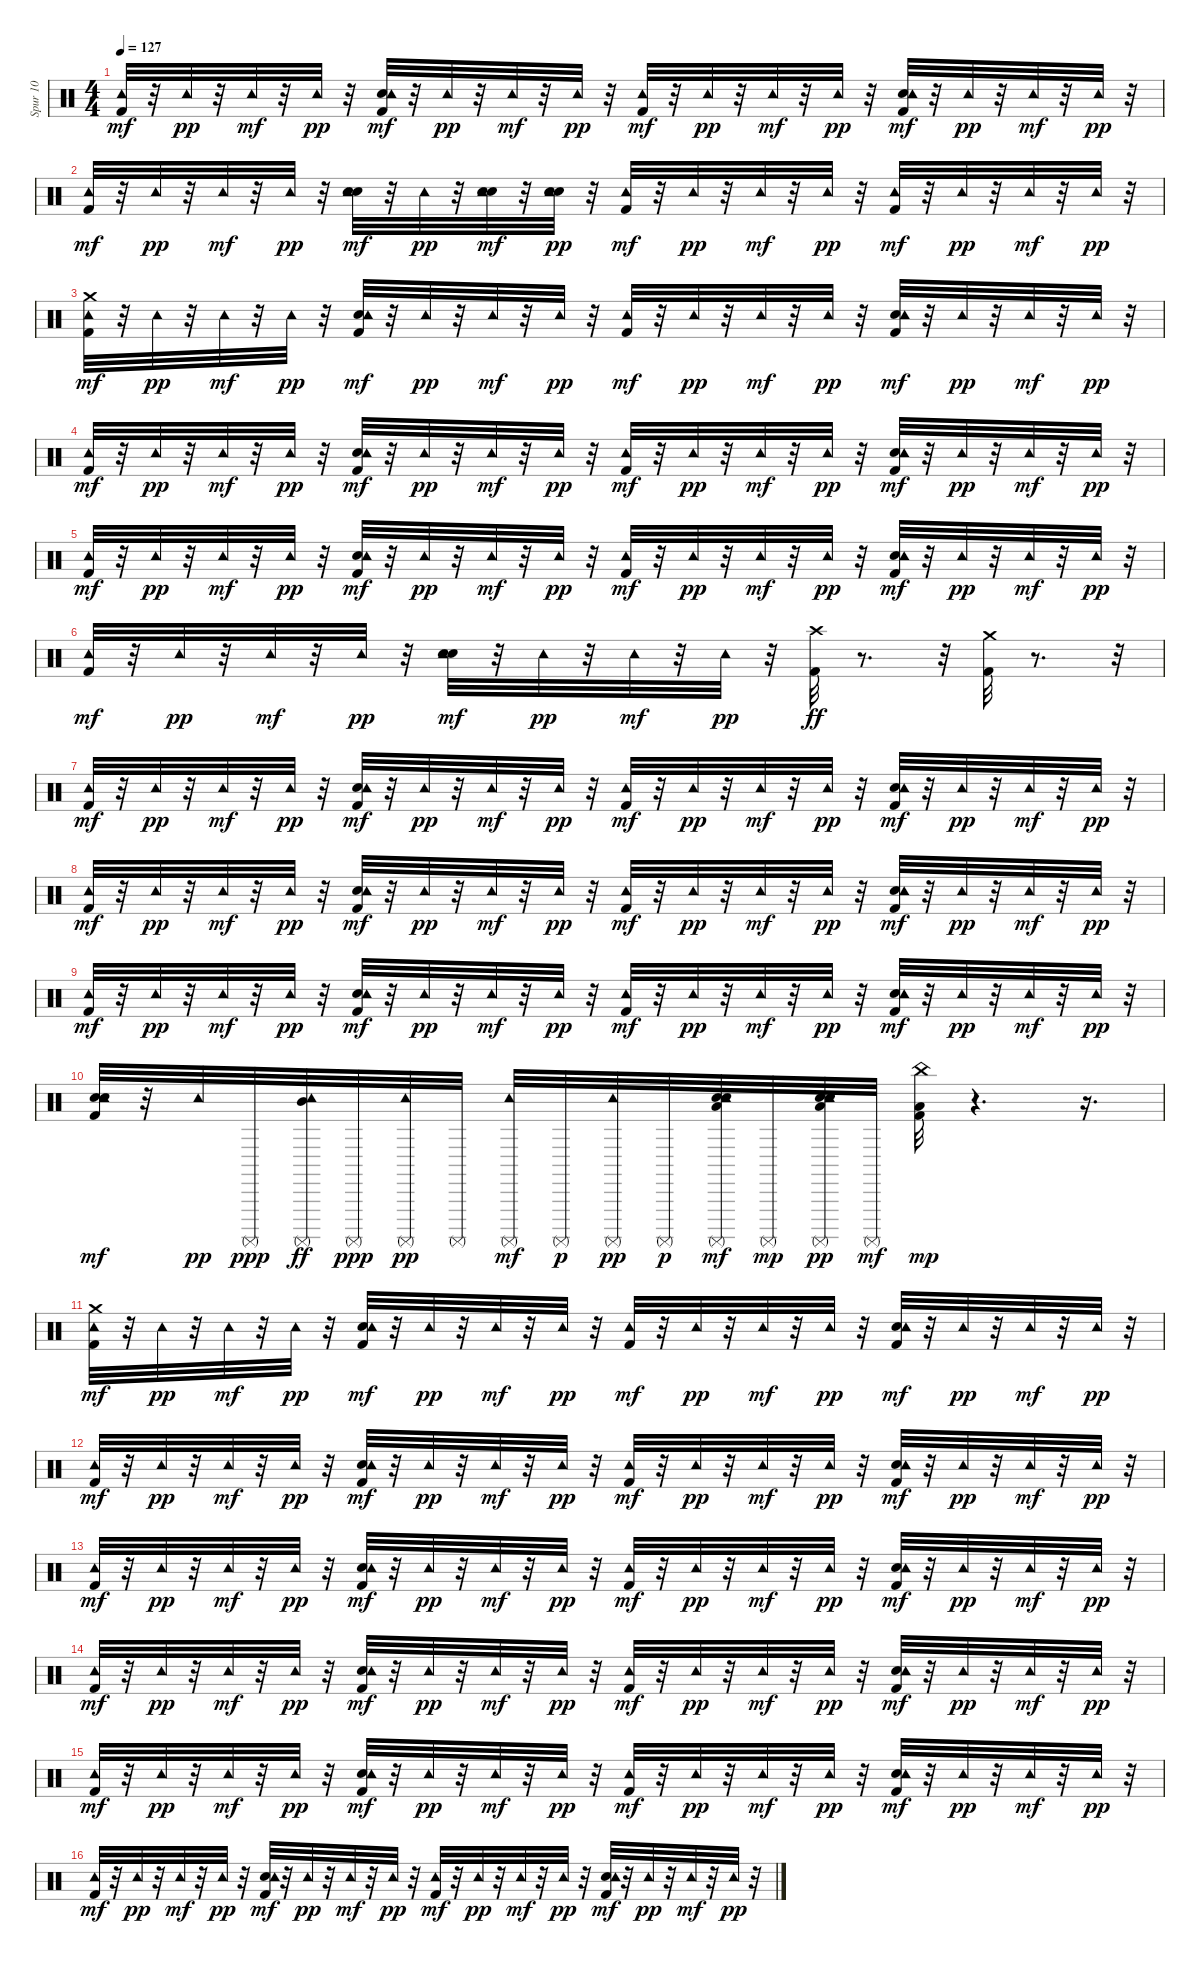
\track ("Spur 10" "Spur 10") {instrument percussion}
\staff {score}
\articulation defaults
\ts (4 4)
\tempo 127
\clef neutral
\ks c
("Kick (hit) 2" "Tambourine (hit)").32{dy mf} r.32 "Tambourine (hit)".32{dy pp} r.32 "Tambourine (hit)".32{dy mf} r.32 "Tambourine (hit)".32{dy pp} r.32 ("Kick (hit) 2" "Snare (hit) 2" "Tambourine (hit)").32{dy mf} r.32 "Tambourine (hit)".32{dy pp} r.32 "Tambourine (hit)".32{dy mf} r.32 "Tambourine (hit)".32{dy pp} r.32 ("Kick (hit) 2" "Tambourine (hit)").32{dy mf} r.32 "Tambourine (hit)".32{dy pp} r.32 "Tambourine (hit)".32{dy mf} r.32 "Tambourine (hit)".32{dy pp} r.32 ("Kick (hit) 2" "Snare (hit) 2" "Tambourine (hit)").32{dy mf} r.32 "Tambourine (hit)".32{dy pp} r.32 "Tambourine (hit)".32{dy mf} r.32 "Tambourine (hit)".32{dy pp} r.32 |
("Kick (hit) 2" "Tambourine (hit)").32{dy mf} r.32 "Tambourine (hit)".32{dy pp} r.32 "Tambourine (hit)".32{dy mf} r.32 "Tambourine (hit)".32{dy pp} r.32 ("Snare (hit) 2" "Electric Snare (hit)" "Tambourine (hit)").32{dy mf} r.32 "Tambourine (hit)".32{dy pp} r.32 ("Snare (hit) 2" "Electric Snare (hit)" "Tambourine (hit)").32{dy mf} r.32 ("Snare (hit) 2" "Electric Snare (hit)" "Tambourine (hit)").32{dy pp} r.32 ("Kick (hit) 2" "Tambourine (hit)").32{dy mf} r.32 "Tambourine (hit)".32{dy pp} r.32 "Tambourine (hit)".32{dy mf} r.32 "Tambourine (hit)".32{dy pp} r.32 ("Kick (hit) 2" "Tambourine (hit)").32{dy mf} r.32 "Tambourine (hit)".32{dy pp} r.32 "Tambourine (hit)".32{dy mf} r.32 "Tambourine (hit)".32{dy pp} r.32 |
("Kick (hit) 2" "Tambourine (hit)" "Crash medium (hit)").32{dy mf} r.32 "Tambourine (hit)".32{dy pp} r.32 "Tambourine (hit)".32{dy mf} r.32 "Tambourine (hit)".32{dy pp} r.32 ("Kick (hit) 2" "Snare (hit) 2" "Tambourine (hit)").32{dy mf} r.32 "Tambourine (hit)".32{dy pp} r.32 "Tambourine (hit)".32{dy mf} r.32 "Tambourine (hit)".32{dy pp} r.32 ("Kick (hit) 2" "Tambourine (hit)").32{dy mf} r.32 "Tambourine (hit)".32{dy pp} r.32 "Tambourine (hit)".32{dy mf} r.32 "Tambourine (hit)".32{dy pp} r.32 ("Kick (hit) 2" "Snare (hit) 2" "Tambourine (hit)").32{dy mf} r.32 "Tambourine (hit)".32{dy pp} r.32 "Tambourine (hit)".32{dy mf} r.32 "Tambourine (hit)".32{dy pp} r.32 |
("Kick (hit) 2" "Tambourine (hit)").32{dy mf} r.32 "Tambourine (hit)".32{dy pp} r.32 "Tambourine (hit)".32{dy mf} r.32 "Tambourine (hit)".32{dy pp} r.32 ("Kick (hit) 2" "Snare (hit) 2" "Tambourine (hit)").32{dy mf} r.32 "Tambourine (hit)".32{dy pp} r.32 "Tambourine (hit)".32{dy mf} r.32 "Tambourine (hit)".32{dy pp} r.32 ("Kick (hit) 2" "Tambourine (hit)").32{dy mf} r.32 "Tambourine (hit)".32{dy pp} r.32 "Tambourine (hit)".32{dy mf} r.32 "Tambourine (hit)".32{dy pp} r.32 ("Kick (hit) 2" "Snare (hit) 2" "Tambourine (hit)").32{dy mf} r.32 "Tambourine (hit)".32{dy pp} r.32 "Tambourine (hit)".32{dy mf} r.32 "Tambourine (hit)".32{dy pp} r.32 |
("Kick (hit) 2" "Tambourine (hit)").32{dy mf} r.32 "Tambourine (hit)".32{dy pp} r.32 "Tambourine (hit)".32{dy mf} r.32 "Tambourine (hit)".32{dy pp} r.32 ("Kick (hit) 2" "Snare (hit) 2" "Tambourine (hit)").32{dy mf} r.32 "Tambourine (hit)".32{dy pp} r.32 "Tambourine (hit)".32{dy mf} r.32 "Tambourine (hit)".32{dy pp} r.32 ("Kick (hit) 2" "Tambourine (hit)").32{dy mf} r.32 "Tambourine (hit)".32{dy pp} r.32 "Tambourine (hit)".32{dy mf} r.32 "Tambourine (hit)".32{dy pp} r.32 ("Kick (hit) 2" "Snare (hit) 2" "Tambourine (hit)").32{dy mf} r.32 "Tambourine (hit)".32{dy pp} r.32 "Tambourine (hit)".32{dy mf} r.32 "Tambourine (hit)".32{dy pp} r.32 |
("Kick (hit) 2" "Tambourine (hit)").32{dy mf} r.32 "Tambourine (hit)".32{dy pp} r.32 "Tambourine (hit)".32{dy mf} r.32 "Tambourine (hit)".32{dy pp} r.32 ("Snare (hit) 2" "Electric Snare (hit)" "Tambourine (hit)").32{dy mf} r.32 "Tambourine (hit)".32{dy pp} r.32 "Tambourine (hit)".32{dy mf} r.32 "Tambourine (hit)".32{dy pp} r.32 ("Kick (hit) 2" "Crash high (hit)").32{dy ff} r.8{d} r.32 ("Kick (hit) 2" "Crash medium (hit)").32 r.8{d} r.32 |
("Kick (hit) 2" "Tambourine (hit)").32{dy mf} r.32 "Tambourine (hit)".32{dy pp} r.32 "Tambourine (hit)".32{dy mf} r.32 "Tambourine (hit)".32{dy pp} r.32 ("Kick (hit) 2" "Snare (hit) 2" "Tambourine (hit)").32{dy mf} r.32 "Tambourine (hit)".32{dy pp} r.32 "Tambourine (hit)".32{dy mf} r.32 "Tambourine (hit)".32{dy pp} r.32 ("Kick (hit) 2" "Tambourine (hit)").32{dy mf} r.32 "Tambourine (hit)".32{dy pp} r.32 "Tambourine (hit)".32{dy mf} r.32 "Tambourine (hit)".32{dy pp} r.32 ("Kick (hit) 2" "Snare (hit) 2" "Tambourine (hit)").32{dy mf} r.32 "Tambourine (hit)".32{dy pp} r.32 "Tambourine (hit)".32{dy mf} r.32 "Tambourine (hit)".32{dy pp} r.32 |
("Kick (hit) 2" "Tambourine (hit)").32{dy mf} r.32 "Tambourine (hit)".32{dy pp} r.32 "Tambourine (hit)".32{dy mf} r.32 "Tambourine (hit)".32{dy pp} r.32 ("Kick (hit) 2" "Snare (hit) 2" "Tambourine (hit)").32{dy mf} r.32 "Tambourine (hit)".32{dy pp} r.32 "Tambourine (hit)".32{dy mf} r.32 "Tambourine (hit)".32{dy pp} r.32 ("Kick (hit) 2" "Tambourine (hit)").32{dy mf} r.32 "Tambourine (hit)".32{dy pp} r.32 "Tambourine (hit)".32{dy mf} r.32 "Tambourine (hit)".32{dy pp} r.32 ("Kick (hit) 2" "Snare (hit) 2" "Tambourine (hit)").32{dy mf} r.32 "Tambourine (hit)".32{dy pp} r.32 "Tambourine (hit)".32{dy mf} r.32 "Tambourine (hit)".32{dy pp} r.32 |
("Kick (hit) 2" "Tambourine (hit)").32{dy mf} r.32 "Tambourine (hit)".32{dy pp} r.32 "Tambourine (hit)".32{dy mf} r.32 "Tambourine (hit)".32{dy pp} r.32 ("Kick (hit) 2" "Snare (hit) 2" "Tambourine (hit)").32{dy mf} r.32 "Tambourine (hit)".32{dy pp} r.32 "Tambourine (hit)".32{dy mf} r.32 "Tambourine (hit)".32{dy pp} r.32 ("Kick (hit) 2" "Tambourine (hit)").32{dy mf} r.32 "Tambourine (hit)".32{dy pp} r.32 "Tambourine (hit)".32{dy mf} r.32 "Tambourine (hit)".32{dy pp} r.32 ("Kick (hit) 2" "Snare (hit) 2" "Tambourine (hit)").32{dy mf} r.32 "Tambourine (hit)".32{dy pp} r.32 "Tambourine (hit)".32{dy mf} r.32 "Tambourine (hit)".32{dy pp} r.32 |
("Kick (hit) 2" "Snare (hit) 2" "Electric Snare (hit)" "Tambourine (hit)").32{dy mf} r.32 "Tambourine (hit)".32{dy pp} "Surdo (mute)".32{dy ppp} ("Surdo (mute)" "Tambourine (hit)" "Mid Tom (hit)").32{dy ff} "Surdo (mute)".32{dy ppp} ("Surdo (mute)" "Tambourine (hit)").32{dy pp} "Surdo (mute)".32 ("Surdo (mute)" "Tambourine (hit)").32{dy mf} "Surdo (mute)".32{dy p} ("Surdo (mute)" "Tambourine (hit)").32{dy pp} "Surdo (mute)".32{dy p} ("Snare (hit) 2" "Electric Snare (hit)" "Surdo (mute)" "Low Tom (hit)" "Tambourine (hit)").32{dy mf} "Surdo (mute)".32{dy mp} ("Snare (hit) 2" "Electric Snare (hit)" "Surdo (mute)" "Low Tom (hit)" "Tambourine (hit)").32{dy pp} "Surdo (mute)".32{dy mf} ("Kick (hit) 2" "Low Floor Tom (hit)" "China (hit)").32{dy mp} r.4{d} r.16{d} |
("Kick (hit) 2" "Tambourine (hit)" "Crash medium (hit)").32{dy mf} r.32 "Tambourine (hit)".32{dy pp} r.32 "Tambourine (hit)".32{dy mf} r.32 "Tambourine (hit)".32{dy pp} r.32 ("Kick (hit) 2" "Snare (hit) 2" "Tambourine (hit)").32{dy mf} r.32 "Tambourine (hit)".32{dy pp} r.32 "Tambourine (hit)".32{dy mf} r.32 "Tambourine (hit)".32{dy pp} r.32 ("Kick (hit) 2" "Tambourine (hit)").32{dy mf} r.32 "Tambourine (hit)".32{dy pp} r.32 "Tambourine (hit)".32{dy mf} r.32 "Tambourine (hit)".32{dy pp} r.32 ("Kick (hit) 2" "Snare (hit) 2" "Tambourine (hit)").32{dy mf} r.32 "Tambourine (hit)".32{dy pp} r.32 "Tambourine (hit)".32{dy mf} r.32 "Tambourine (hit)".32{dy pp} r.32 |
("Kick (hit) 2" "Tambourine (hit)").32{dy mf} r.32 "Tambourine (hit)".32{dy pp} r.32 "Tambourine (hit)".32{dy mf} r.32 "Tambourine (hit)".32{dy pp} r.32 ("Kick (hit) 2" "Snare (hit) 2" "Tambourine (hit)").32{dy mf} r.32 "Tambourine (hit)".32{dy pp} r.32 "Tambourine (hit)".32{dy mf} r.32 "Tambourine (hit)".32{dy pp} r.32 ("Kick (hit) 2" "Tambourine (hit)").32{dy mf} r.32 "Tambourine (hit)".32{dy pp} r.32 "Tambourine (hit)".32{dy mf} r.32 "Tambourine (hit)".32{dy pp} r.32 ("Kick (hit) 2" "Snare (hit) 2" "Tambourine (hit)").32{dy mf} r.32 "Tambourine (hit)".32{dy pp} r.32 "Tambourine (hit)".32{dy mf} r.32 "Tambourine (hit)".32{dy pp} r.32 |
("Kick (hit) 2" "Tambourine (hit)").32{dy mf} r.32 "Tambourine (hit)".32{dy pp} r.32 "Tambourine (hit)".32{dy mf} r.32 "Tambourine (hit)".32{dy pp} r.32 ("Kick (hit) 2" "Snare (hit) 2" "Tambourine (hit)").32{dy mf} r.32 "Tambourine (hit)".32{dy pp} r.32 "Tambourine (hit)".32{dy mf} r.32 "Tambourine (hit)".32{dy pp} r.32 ("Kick (hit) 2" "Tambourine (hit)").32{dy mf} r.32 "Tambourine (hit)".32{dy pp} r.32 "Tambourine (hit)".32{dy mf} r.32 "Tambourine (hit)".32{dy pp} r.32 ("Kick (hit) 2" "Snare (hit) 2" "Tambourine (hit)").32{dy mf} r.32 "Tambourine (hit)".32{dy pp} r.32 "Tambourine (hit)".32{dy mf} r.32 "Tambourine (hit)".32{dy pp} r.32 |
("Kick (hit) 2" "Tambourine (hit)").32{dy mf} r.32 "Tambourine (hit)".32{dy pp} r.32 "Tambourine (hit)".32{dy mf} r.32 "Tambourine (hit)".32{dy pp} r.32 ("Kick (hit) 2" "Snare (hit) 2" "Tambourine (hit)").32{dy mf} r.32 "Tambourine (hit)".32{dy pp} r.32 "Tambourine (hit)".32{dy mf} r.32 "Tambourine (hit)".32{dy pp} r.32 ("Kick (hit) 2" "Tambourine (hit)").32{dy mf} r.32 "Tambourine (hit)".32{dy pp} r.32 "Tambourine (hit)".32{dy mf} r.32 "Tambourine (hit)".32{dy pp} r.32 ("Kick (hit) 2" "Snare (hit) 2" "Tambourine (hit)").32{dy mf} r.32 "Tambourine (hit)".32{dy pp} r.32 "Tambourine (hit)".32{dy mf} r.32 "Tambourine (hit)".32{dy pp} r.32 |
("Kick (hit) 2" "Tambourine (hit)").32{dy mf} r.32 "Tambourine (hit)".32{dy pp} r.32 "Tambourine (hit)".32{dy mf} r.32 "Tambourine (hit)".32{dy pp} r.32 ("Kick (hit) 2" "Snare (hit) 2" "Tambourine (hit)").32{dy mf} r.32 "Tambourine (hit)".32{dy pp} r.32 "Tambourine (hit)".32{dy mf} r.32 "Tambourine (hit)".32{dy pp} r.32 ("Kick (hit) 2" "Tambourine (hit)").32{dy mf} r.32 "Tambourine (hit)".32{dy pp} r.32 "Tambourine (hit)".32{dy mf} r.32 "Tambourine (hit)".32{dy pp} r.32 ("Kick (hit) 2" "Snare (hit) 2" "Tambourine (hit)").32{dy mf} r.32 "Tambourine (hit)".32{dy pp} r.32 "Tambourine (hit)".32{dy mf} r.32 "Tambourine (hit)".32{dy pp} r.32 |
("Kick (hit) 2" "Tambourine (hit)").32{dy mf} r.32 "Tambourine (hit)".32{dy pp} r.32 "Tambourine (hit)".32{dy mf} r.32 "Tambourine (hit)".32{dy pp} r.32 ("Kick (hit) 2" "Snare (hit) 2" "Tambourine (hit)").32{dy mf} r.32 "Tambourine (hit)".32{dy pp} r.32 "Tambourine (hit)".32{dy mf} r.32 "Tambourine (hit)".32{dy pp} r.32 ("Kick (hit) 2" "Tambourine (hit)").32{dy mf} r.32 "Tambourine (hit)".32{dy pp} r.32 "Tambourine (hit)".32{dy mf} r.32 "Tambourine (hit)".32{dy pp} r.32 ("Kick (hit) 2" "Snare (hit) 2" "Tambourine (hit)").32{dy mf} r.32 "Tambourine (hit)".32{dy pp} r.32 "Tambourine (hit)".32{dy mf} r.32 "Tambourine (hit)".32{dy pp} r.32
